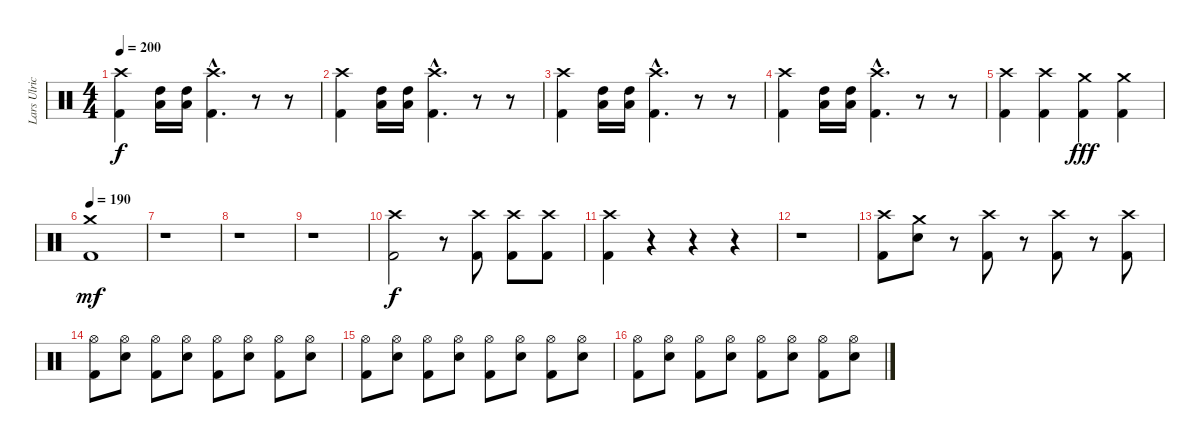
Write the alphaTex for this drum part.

\track ("Lars Ulrich" "Lars Ulric") {instrument percussion}
\staff {score}
\articulation defaults
\ts (4 4)
\tempo 200
\clef neutral
\ks c
("Crash high (hit)" "Kick (hit) 2").4{dy f} ("Low Tom (hit)" "High Tom (hit)").16 ("Low Tom (hit)" "High Tom (hit)").16 ("Crash high (hit)"{hac} "Kick (hit) 2"{hac}).4{d} r.8 r.8 |
("Crash high (hit)" "Kick (hit) 2").4 ("Low Tom (hit)" "High Tom (hit)").16 ("Low Tom (hit)" "High Tom (hit)").16 ("Crash high (hit)"{hac} "Kick (hit) 2"{hac}).4{d} r.8 r.8 |
("Crash high (hit)" "Kick (hit) 2").4 ("Low Tom (hit)" "High Tom (hit)").16 ("Low Tom (hit)" "High Tom (hit)").16 ("Crash high (hit)"{hac} "Kick (hit) 2"{hac}).4{d} r.8 r.8 |
("Crash high (hit)" "Kick (hit) 2").4 ("Low Tom (hit)" "High Tom (hit)").16 ("Low Tom (hit)" "High Tom (hit)").16 ("Crash high (hit)"{hac} "Kick (hit) 2"{hac}).4{d} r.8 r.8 |
("Crash high (hit)" "Kick (hit) 2").4 ("Crash high (hit)" "Kick (hit) 2").4 ("Crash medium (hit)" "Kick (hit) 2").4{dy fff} ("Crash medium (hit)" "Kick (hit) 2").4 |
\tempo 190
("Crash medium (hit)" "Kick (hit) 2").1{dy mf} |
r.1 |
r.1 |
r.1 |
("Crash high (hit)" "Kick (hit) 2").2{dy f} r.8 ("Crash high (hit)" "Kick (hit) 2").8 ("Crash high (hit)" "Kick (hit) 2").8 ("Crash high (hit)" "Kick (hit) 2").8 |
("Crash high (hit)" "Kick (hit) 2").4 r.4 r.4 r.4 |
r.1 |
("Crash high (hit)" "Kick (hit) 2").8 ("Crash medium (hit)" "Snare (hit) 2").8 r.8 ("Crash high (hit)" "Kick (hit) 2").8 r.8 ("Crash high (hit)" "Kick (hit) 2").8 r.8 ("Crash high (hit)" "Kick (hit) 2").8 |
("Hi-Hat (open)" "Kick (hit) 2").8 ("Hi-Hat (open)" "Snare (hit) 2").8 ("Hi-Hat (open)" "Kick (hit) 2").8 ("Hi-Hat (open)" "Snare (hit) 2").8 ("Hi-Hat (open)" "Kick (hit) 2").8 ("Hi-Hat (open)" "Snare (hit) 2").8 ("Hi-Hat (open)" "Kick (hit) 2").8 ("Hi-Hat (open)" "Snare (hit) 2").8 |
("Hi-Hat (open)" "Kick (hit) 2").8 ("Hi-Hat (open)" "Snare (hit) 2").8 ("Hi-Hat (open)" "Kick (hit) 2").8 ("Hi-Hat (open)" "Snare (hit) 2").8 ("Hi-Hat (open)" "Kick (hit) 2").8 ("Hi-Hat (open)" "Snare (hit) 2").8 ("Hi-Hat (open)" "Kick (hit) 2").8 ("Hi-Hat (open)" "Snare (hit) 2").8 |
("Hi-Hat (open)" "Kick (hit) 2").8 ("Hi-Hat (open)" "Snare (hit) 2").8 ("Hi-Hat (open)" "Kick (hit) 2").8 ("Hi-Hat (open)" "Snare (hit) 2").8 ("Hi-Hat (open)" "Kick (hit) 2").8 ("Hi-Hat (open)" "Snare (hit) 2").8 ("Hi-Hat (open)" "Kick (hit) 2").8 ("Hi-Hat (open)" "Snare (hit) 2").8
